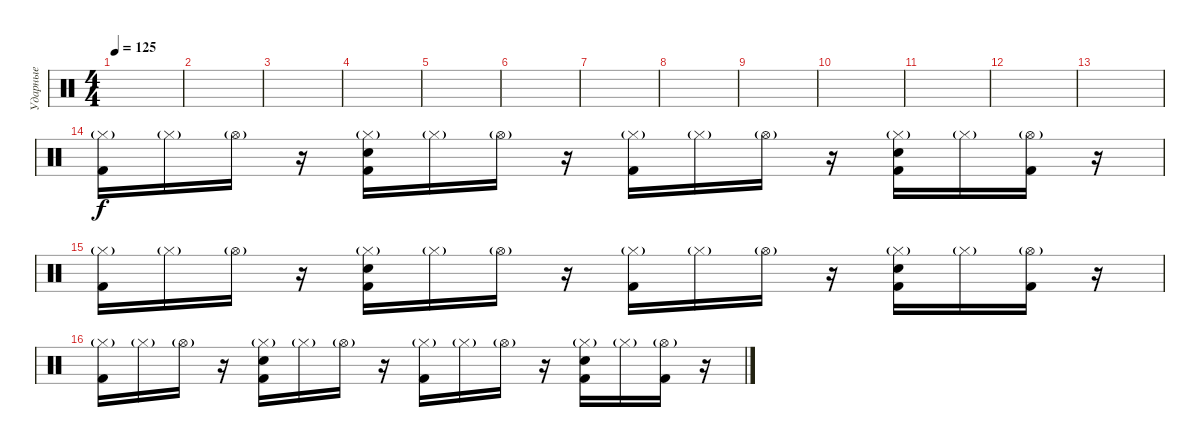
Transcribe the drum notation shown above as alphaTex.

\track ("Ударные" "Ударные") {instrument percussion}
\staff {score}
\articulation defaults
\ts (4 4)
\tempo 125
\clef neutral
\ks c
|
|
|
|
|
|
|
|
|
|
|
|
|
("Hi-Hat (closed)"{g} "Kick (hit) 2").16 "Hi-Hat (closed)"{g}.16 "Hi-Hat (open)"{g}.16 r.16 ("Snare (hit) 2" "Hi-Hat (closed)"{g} "Kick (hit) 2").16 "Hi-Hat (closed)"{g}.16 "Hi-Hat (open)"{g}.16 r.16 ("Hi-Hat (closed)"{g} "Kick (hit) 2").16 "Hi-Hat (closed)"{g}.16 "Hi-Hat (open)"{g}.16 r.16 ("Snare (hit) 2" "Hi-Hat (closed)"{g} "Kick (hit) 2").16 "Hi-Hat (closed)"{g}.16 ("Hi-Hat (open)"{g} "Kick (hit) 2").16 r.16 |
("Hi-Hat (closed)"{g} "Kick (hit) 2").16 "Hi-Hat (closed)"{g}.16 "Hi-Hat (open)"{g}.16 r.16 ("Snare (hit) 2" "Hi-Hat (closed)"{g} "Kick (hit) 2").16 "Hi-Hat (closed)"{g}.16 "Hi-Hat (open)"{g}.16 r.16 ("Hi-Hat (closed)"{g} "Kick (hit) 2").16 "Hi-Hat (closed)"{g}.16 "Hi-Hat (open)"{g}.16 r.16 ("Snare (hit) 2" "Hi-Hat (closed)"{g} "Kick (hit) 2").16 "Hi-Hat (closed)"{g}.16 ("Hi-Hat (open)"{g} "Kick (hit) 2").16 r.16 |
("Hi-Hat (closed)"{g} "Kick (hit) 2").16 "Hi-Hat (closed)"{g}.16 "Hi-Hat (open)"{g}.16 r.16 ("Snare (hit) 2" "Hi-Hat (closed)"{g} "Kick (hit) 2").16 "Hi-Hat (closed)"{g}.16 "Hi-Hat (open)"{g}.16 r.16 ("Hi-Hat (closed)"{g} "Kick (hit) 2").16 "Hi-Hat (closed)"{g}.16 "Hi-Hat (open)"{g}.16 r.16 ("Snare (hit) 2" "Hi-Hat (closed)"{g} "Kick (hit) 2").16 "Hi-Hat (closed)"{g}.16 ("Hi-Hat (open)"{g} "Kick (hit) 2").16 r.16
